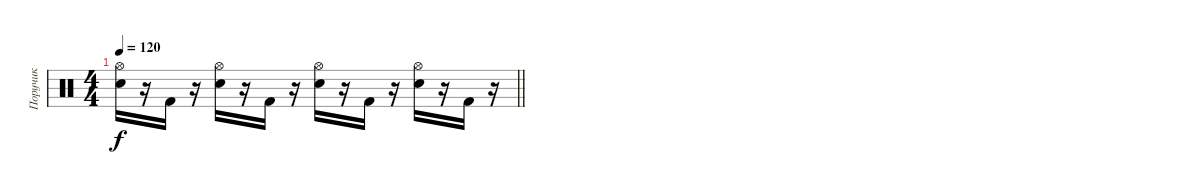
\track ("Поручик" "Поручик") {instrument percussion}
\staff {score}
\articulation defaults
\ts (4 4)
\tempo 120
\clef neutral
\barLineRight lightlight
\ks c
("Hi-Hat (open)" "Snare (hit) 2").16{dy f} r.16 "Kick (hit) 2".16 r.16 ("Hi-Hat (open)" "Snare (hit) 2").16 r.16 "Kick (hit) 2".16 r.16 ("Hi-Hat (open)" "Snare (hit) 2").16 r.16 "Kick (hit) 2".16 r.16 ("Hi-Hat (open)" "Snare (hit) 2").16 r.16 "Kick (hit) 2".16 r.16
